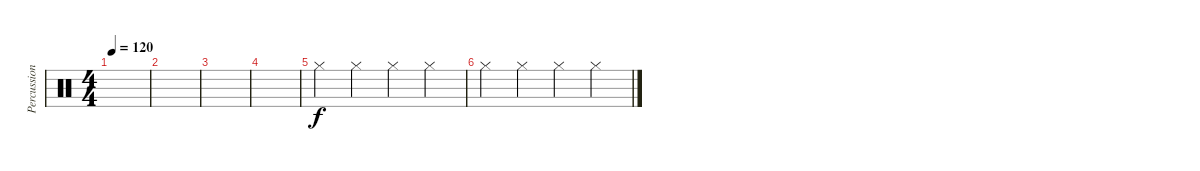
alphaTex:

\track ("Percussion" "Percussion") {instrument percussion}
\staff {score}
\articulation defaults
\ts (4 4)
\tempo 120
\clef neutral
\ks c
|
|
|
|
"Hi-Hat (closed)".4 "Hi-Hat (closed)".4 "Hi-Hat (closed)".4 "Hi-Hat (closed)".4 |
"Hi-Hat (closed)".4 "Hi-Hat (closed)".4 "Hi-Hat (closed)".4 "Hi-Hat (closed)".4
